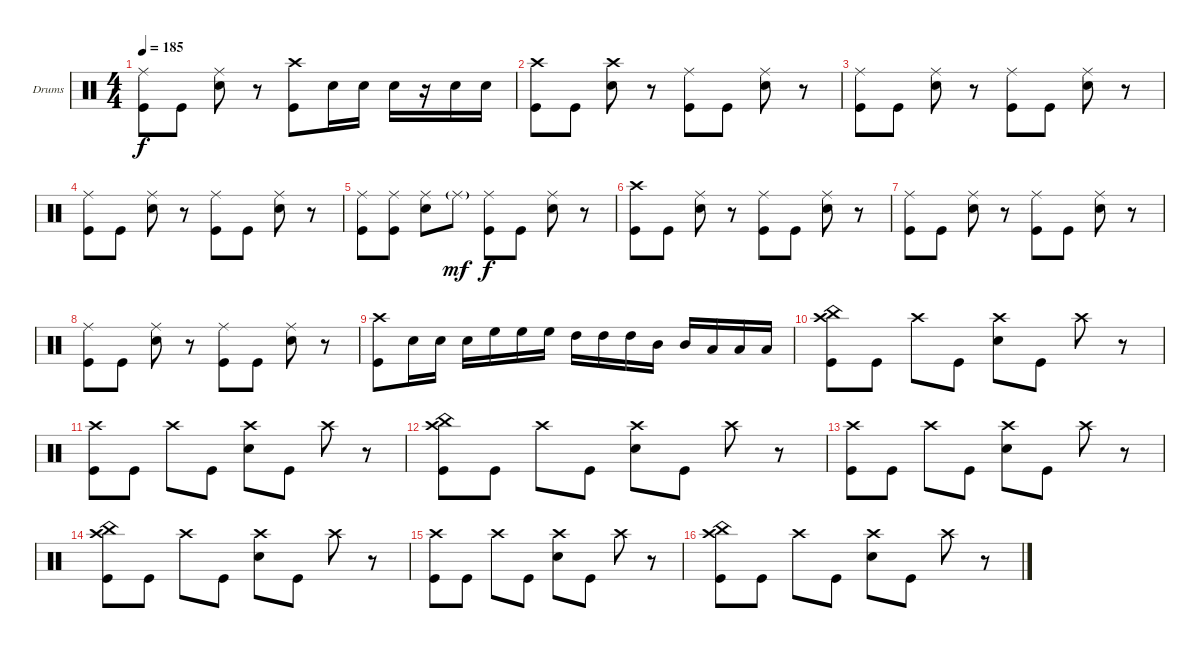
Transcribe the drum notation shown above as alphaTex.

\defaultSystemsLayout 4
\bracketExtendMode nobrackets
\firstSystemTrackNameOrientation horizontal
\otherSystemsTrackNameOrientation horizontal
\track ("Drumkit" "Drums") {instrument percussion}
\staff {score}
\articulation defaults
\ts (4 4)
\tempo 185
\clef neutral
\ks c
("Ride (middle)" "Kick (hit)").8{dy f} "Kick (hit)".8 ("Ride (middle)" "Snare (hit) 2").8 r.8 ("Crash high (hit)" "Kick (hit)").8 "Snare (hit) 2".16 "Snare (hit) 2".16 "Snare (hit) 2".16 r.16 "Snare (hit) 2".16 "Snare (hit) 2".16 |
("Crash high (hit)" "Kick (hit)").8 "Kick (hit)".8 ("Crash high (hit)" "Snare (hit) 2").8 r.8 ("Ride (middle)" "Kick (hit)").8 "Kick (hit)".8 ("Ride (middle)" "Snare (hit) 2").8 r.8 |
("Ride (middle)" "Kick (hit)").8 "Kick (hit)".8 ("Ride (middle)" "Snare (hit) 2").8 r.8 ("Ride (middle)" "Kick (hit)").8 "Kick (hit)".8 ("Ride (middle)" "Snare (hit) 2").8 r.8 |
("Ride (middle)" "Kick (hit)").8 "Kick (hit)".8 ("Ride (middle)" "Snare (hit) 2").8 r.8 ("Ride (middle)" "Kick (hit)").8 "Kick (hit)".8 ("Ride (middle)" "Snare (hit) 2").8 r.8 |
("Ride (middle)" "Kick (hit)").8 ("Ride (middle)" "Kick (hit)").8 ("Ride (middle)" "Snare (hit) 2").8 "Ride (middle)"{g}.8{dy mf} ("Ride (middle)" "Kick (hit)").8{dy f} "Kick (hit)".8 ("Ride (middle)" "Snare (hit) 2").8 r.8 |
("Crash high (hit)" "Kick (hit)").8 "Kick (hit)".8 ("Ride (middle)" "Snare (hit) 2").8 r.8 ("Ride (middle)" "Kick (hit)").8 "Kick (hit)".8 ("Ride (middle)" "Snare (hit) 2").8 r.8 |
("Ride (middle)" "Kick (hit)").8 "Kick (hit)".8 ("Ride (middle)" "Snare (hit) 2").8 r.8 ("Ride (middle)" "Kick (hit)").8 "Kick (hit)".8 ("Ride (middle)" "Snare (hit) 2").8 r.8 |
("Ride (middle)" "Kick (hit)").8 "Kick (hit)".8 ("Ride (middle)" "Snare (hit) 2").8 r.8 ("Ride (middle)" "Kick (hit)").8 "Kick (hit)".8 ("Ride (middle)" "Snare (hit) 2").8 r.8 |
("Crash high (hit)" "Kick (hit)").8 "Snare (hit) 2".16 "Snare (hit) 2".16 "Snare (hit) 2".16 "High Floor Tom (hit)".16 "High Floor Tom (hit)".16 "High Floor Tom (hit)".16 "High Tom (hit)".16 "High Tom (hit)".16 "High Tom (hit)".16 "Mid Tom (hit)".16 "Mid Tom (hit)".16 "Low Tom (hit)".16 "Low Tom (hit)".16 "Low Tom (hit)".16 |
("Crash high (hit)" "China (hit)" "Kick (hit)").8 "Kick (hit)".8 "Crash high (hit)".8 "Kick (hit)".8 ("Crash high (hit)" "Snare (hit) 2").8 "Kick (hit)".8 "Crash high (hit)".8 r.8 |
("Crash high (hit)" "Kick (hit)").8 "Kick (hit)".8 "Crash high (hit)".8 "Kick (hit)".8 ("Crash high (hit)" "Snare (hit) 2").8 "Kick (hit)".8 "Crash high (hit)".8 r.8 |
("Crash high (hit)" "China (hit)" "Kick (hit)").8 "Kick (hit)".8 "Crash high (hit)".8 "Kick (hit)".8 ("Crash high (hit)" "Snare (hit) 2").8 "Kick (hit)".8 "Crash high (hit)".8 r.8 |
("Crash high (hit)" "Kick (hit)").8 "Kick (hit)".8 "Crash high (hit)".8 "Kick (hit)".8 ("Crash high (hit)" "Snare (hit) 2").8 "Kick (hit)".8 "Crash high (hit)".8 r.8 |
("Crash high (hit)" "China (hit)" "Kick (hit)").8 "Kick (hit)".8 "Crash high (hit)".8 "Kick (hit)".8 ("Crash high (hit)" "Snare (hit) 2").8 "Kick (hit)".8 "Crash high (hit)".8 r.8 |
("Crash high (hit)" "Kick (hit)").8 "Kick (hit)".8 "Crash high (hit)".8 "Kick (hit)".8 ("Crash high (hit)" "Snare (hit) 2").8 "Kick (hit)".8 "Crash high (hit)".8 r.8 |
("Crash high (hit)" "China (hit)" "Kick (hit)").8 "Kick (hit)".8 "Crash high (hit)".8 "Kick (hit)".8 ("Crash high (hit)" "Snare (hit) 2").8 "Kick (hit)".8 "Crash high (hit)".8 r.8
